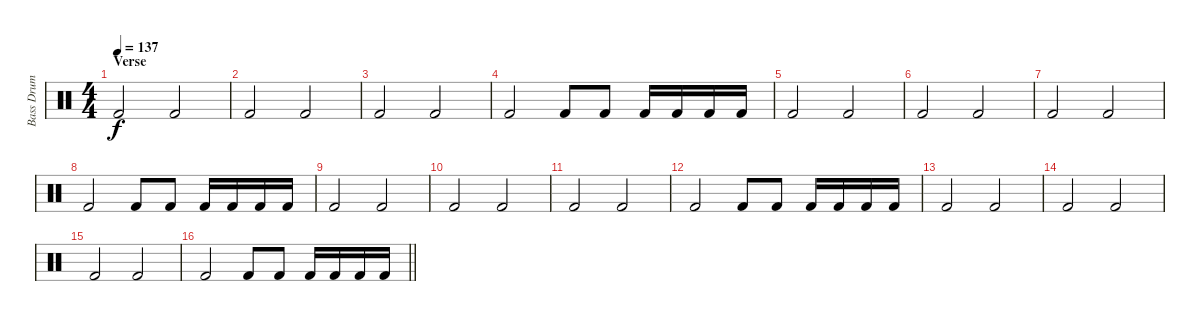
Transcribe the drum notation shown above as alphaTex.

\track ("Bass Drum" "Bass Drum") {instrument percussion}
\staff {score}
\articulation defaults
\ts (4 4)
\section ("" "Verse")
\tempo 137
\clef neutral
\ks c "Kick (hit) 2".2{dy f} "Kick (hit) 2".2
|
"Kick (hit) 2".2 "Kick (hit) 2".2 |
"Kick (hit) 2".2 "Kick (hit) 2".2 |
"Kick (hit) 2".2 "Kick (hit) 2".8 "Kick (hit) 2".8 "Kick (hit) 2".16 "Kick (hit) 2".16 "Kick (hit) 2".16 "Kick (hit) 2".16 |
"Kick (hit) 2".2 "Kick (hit) 2".2 |
"Kick (hit) 2".2 "Kick (hit) 2".2 |
"Kick (hit) 2".2 "Kick (hit) 2".2 |
"Kick (hit) 2".2 "Kick (hit) 2".8 "Kick (hit) 2".8 "Kick (hit) 2".16 "Kick (hit) 2".16 "Kick (hit) 2".16 "Kick (hit) 2".16 |
"Kick (hit) 2".2 "Kick (hit) 2".2 |
"Kick (hit) 2".2 "Kick (hit) 2".2 |
"Kick (hit) 2".2 "Kick (hit) 2".2 |
"Kick (hit) 2".2 "Kick (hit) 2".8 "Kick (hit) 2".8 "Kick (hit) 2".16 "Kick (hit) 2".16 "Kick (hit) 2".16 "Kick (hit) 2".16 |
"Kick (hit) 2".2 "Kick (hit) 2".2 |
"Kick (hit) 2".2 "Kick (hit) 2".2 |
"Kick (hit) 2".2 "Kick (hit) 2".2 |
\barLineRight lightlight "Kick (hit) 2".2 "Kick (hit) 2".8 "Kick (hit) 2".8 "Kick (hit) 2".16 "Kick (hit) 2".16 "Kick (hit) 2".16 "Kick (hit) 2".16
